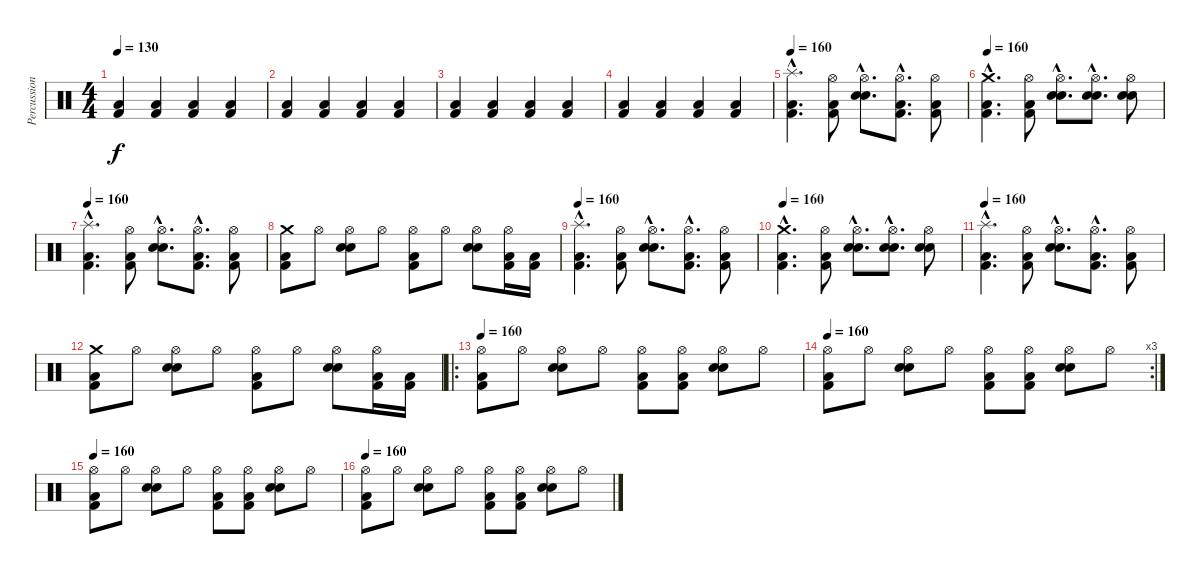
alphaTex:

\track ("Percussions" "Percussion") {instrument percussion}
\staff {score}
\articulation defaults
\ts (4 4)
\tempo 130
\clef neutral
\ks c
("Kick (hit) 2" "Low Floor Tom (hit)").4{dy f} ("Kick (hit) 2" "Low Floor Tom (hit)").4 ("Kick (hit) 2" "Low Floor Tom (hit)").4 ("Kick (hit) 2" "Low Floor Tom (hit)").4 |
("Kick (hit) 2" "Low Floor Tom (hit)").4 ("Kick (hit) 2" "Low Floor Tom (hit)").4 ("Kick (hit) 2" "Low Floor Tom (hit)").4 ("Kick (hit) 2" "Low Floor Tom (hit)").4 |
("Kick (hit) 2" "Low Floor Tom (hit)").4 ("Kick (hit) 2" "Low Floor Tom (hit)").4 ("Kick (hit) 2" "Low Floor Tom (hit)").4 ("Kick (hit) 2" "Low Floor Tom (hit)").4 |
("Kick (hit) 2" "Low Floor Tom (hit)").4 ("Kick (hit) 2" "Low Floor Tom (hit)").4 ("Kick (hit) 2" "Low Floor Tom (hit)").4 ("Kick (hit) 2" "Low Floor Tom (hit)").4 |
\tempo 160
("Splash (hit)"{hac} "Kick (hit) 2"{hac} "Low Floor Tom (hit)"{hac}).4{d} ("Hi-Hat (open)" "Kick (hit) 2" "Low Floor Tom (hit)").8 ("Hi-Hat (open)"{hac} "Snare (hit) 2"{hac} "Electric Snare (hit)"{hac}).8{d} ("Hi-Hat (open)"{hac} "Kick (hit) 2"{hac} "Low Floor Tom (hit)"{hac}).8{d} ("Hi-Hat (open)" "Kick (hit) 2" "Low Floor Tom (hit)").8 |
\tempo 160
("Crash medium (hit)"{hac} "Kick (hit) 2"{hac} "Low Floor Tom (hit)"{hac}).4{d} ("Hi-Hat (open)" "Kick (hit) 2" "Low Floor Tom (hit)").8 ("Hi-Hat (open)"{hac} "Snare (hit) 2"{hac} "Electric Snare (hit)"{hac}).8{d} ("Hi-Hat (open)"{hac} "Snare (hit) 2"{hac} "Electric Snare (hit)"{hac}).8{d} ("Hi-Hat (open)" "Snare (hit) 2" "Electric Snare (hit)").8 |
\tempo 160
("Splash (hit)"{hac} "Kick (hit) 2"{hac} "Low Floor Tom (hit)"{hac}).4{d} ("Hi-Hat (open)" "Kick (hit) 2" "Low Floor Tom (hit)").8 ("Hi-Hat (open)"{hac} "Snare (hit) 2"{hac} "Electric Snare (hit)"{hac}).8{d} ("Hi-Hat (open)"{hac} "Kick (hit) 2"{hac} "Low Floor Tom (hit)"{hac}).8{d} ("Hi-Hat (open)" "Kick (hit) 2" "Low Floor Tom (hit)").8 |
("Crash medium (hit)" "Kick (hit) 2" "Low Floor Tom (hit)").8 "Hi-Hat (open)".8 ("Hi-Hat (open)" "Snare (hit) 2" "Electric Snare (hit)").8 "Hi-Hat (open)".8 ("Hi-Hat (open)" "Kick (hit) 2" "Low Floor Tom (hit)").8 "Hi-Hat (open)".8 ("Hi-Hat (open)" "Snare (hit) 2" "Electric Snare (hit)").8 ("Hi-Hat (open)" "Kick (hit) 2" "Low Floor Tom (hit)").16 ("Kick (hit) 2" "Low Floor Tom (hit)").16 |
\tempo 160
("Splash (hit)"{hac} "Kick (hit) 2"{hac} "Low Floor Tom (hit)"{hac}).4{d} ("Hi-Hat (open)" "Kick (hit) 2" "Low Floor Tom (hit)").8 ("Hi-Hat (open)"{hac} "Snare (hit) 2"{hac} "Electric Snare (hit)"{hac}).8{d} ("Hi-Hat (open)"{hac} "Kick (hit) 2"{hac} "Low Floor Tom (hit)"{hac}).8{d} ("Hi-Hat (open)" "Kick (hit) 2" "Low Floor Tom (hit)").8 |
\tempo 160
("Crash medium (hit)"{hac} "Kick (hit) 2"{hac} "Low Floor Tom (hit)"{hac}).4{d} ("Hi-Hat (open)" "Kick (hit) 2" "Low Floor Tom (hit)").8 ("Hi-Hat (open)"{hac} "Snare (hit) 2"{hac} "Electric Snare (hit)"{hac}).8{d} ("Hi-Hat (open)"{hac} "Snare (hit) 2"{hac} "Electric Snare (hit)"{hac}).8{d} ("Hi-Hat (open)" "Snare (hit) 2" "Electric Snare (hit)").8 |
\tempo 160
("Splash (hit)"{hac} "Kick (hit) 2"{hac} "Low Floor Tom (hit)"{hac}).4{d} ("Hi-Hat (open)" "Kick (hit) 2" "Low Floor Tom (hit)").8 ("Hi-Hat (open)"{hac} "Snare (hit) 2"{hac} "Electric Snare (hit)"{hac}).8{d} ("Hi-Hat (open)"{hac} "Kick (hit) 2"{hac} "Low Floor Tom (hit)"{hac}).8{d} ("Hi-Hat (open)" "Kick (hit) 2" "Low Floor Tom (hit)").8 |
("Crash medium (hit)" "Kick (hit) 2" "Low Floor Tom (hit)").8 "Hi-Hat (open)".8 ("Hi-Hat (open)" "Snare (hit) 2" "Electric Snare (hit)").8 "Hi-Hat (open)".8 ("Hi-Hat (open)" "Kick (hit) 2" "Low Floor Tom (hit)").8 "Hi-Hat (open)".8 ("Hi-Hat (open)" "Snare (hit) 2" "Electric Snare (hit)").8 ("Hi-Hat (open)" "Kick (hit) 2" "Low Floor Tom (hit)").16 ("Kick (hit) 2" "Low Floor Tom (hit)").16 |
\ro
\tempo 160
("Hi-Hat (open)" "Kick (hit) 2" "Low Floor Tom (hit)").8 "Hi-Hat (open)".8 ("Hi-Hat (open)" "Snare (hit) 2" "Electric Snare (hit)").8 "Hi-Hat (open)".8 ("Hi-Hat (open)" "Kick (hit) 2" "Low Floor Tom (hit)").8 ("Hi-Hat (open)" "Kick (hit) 2" "Low Floor Tom (hit)").8 ("Hi-Hat (open)" "Snare (hit) 2" "Electric Snare (hit)").8 "Hi-Hat (open)".8 |
\rc 3
\tempo 160
("Hi-Hat (open)" "Kick (hit) 2" "Low Floor Tom (hit)").8 "Hi-Hat (open)".8 ("Hi-Hat (open)" "Snare (hit) 2" "Electric Snare (hit)").8 "Hi-Hat (open)".8 ("Hi-Hat (open)" "Kick (hit) 2" "Low Floor Tom (hit)").8 ("Hi-Hat (open)" "Kick (hit) 2" "Low Floor Tom (hit)").8 ("Hi-Hat (open)" "Snare (hit) 2" "Electric Snare (hit)").8 "Hi-Hat (open)".8 |
\tempo 160
("Hi-Hat (open)" "Kick (hit) 2" "Low Floor Tom (hit)").8 "Hi-Hat (open)".8 ("Hi-Hat (open)" "Snare (hit) 2" "Electric Snare (hit)").8 "Hi-Hat (open)".8 ("Hi-Hat (open)" "Kick (hit) 2" "Low Floor Tom (hit)").8 ("Hi-Hat (open)" "Kick (hit) 2" "Low Floor Tom (hit)").8 ("Hi-Hat (open)" "Snare (hit) 2" "Electric Snare (hit)").8 "Hi-Hat (open)".8 |
\tempo 160
("Hi-Hat (open)" "Kick (hit) 2" "Low Floor Tom (hit)").8 "Hi-Hat (open)".8 ("Hi-Hat (open)" "Snare (hit) 2" "Electric Snare (hit)").8 "Hi-Hat (open)".8 ("Hi-Hat (open)" "Kick (hit) 2" "Low Floor Tom (hit)").8 ("Hi-Hat (open)" "Kick (hit) 2" "Low Floor Tom (hit)").8 ("Hi-Hat (open)" "Snare (hit) 2" "Electric Snare (hit)").8 "Hi-Hat (open)".8
